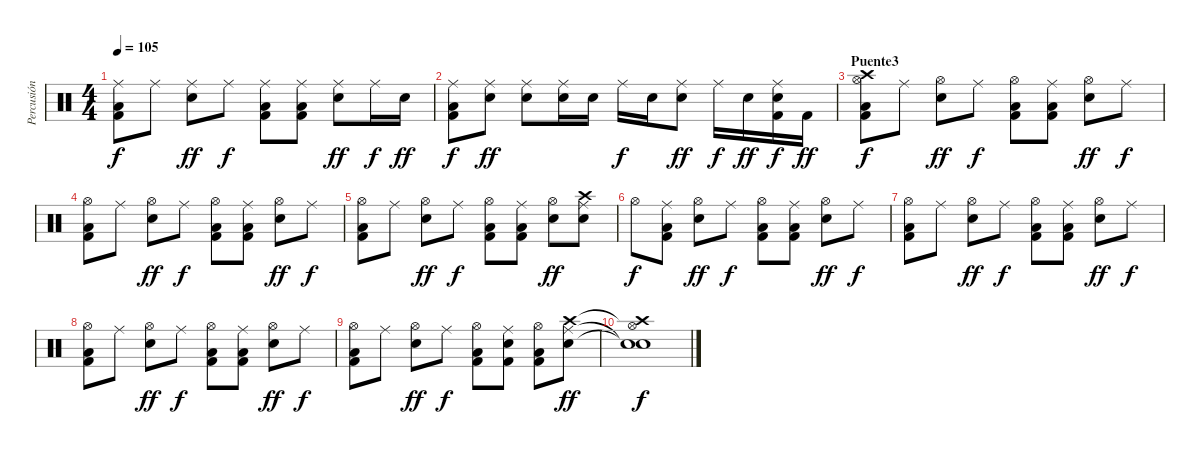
\track ("Percusión" "Percusión") {instrument percussion}
\staff {score}
\articulation defaults
\ts (4 4)
\tempo 105
\clef neutral
\ks c
("Low Floor Tom (hit)" "Kick (hit) 2" "Ride (middle)").8{dy f} "Ride (middle)".8 ("Electric Snare (hit)" "Ride (middle)").8{dy ff} "Ride (middle)".8{dy f} ("Low Floor Tom (hit)" "Kick (hit) 2" "Ride (middle)").8 ("Low Floor Tom (hit)" "Kick (hit) 2" "Ride (middle)").8 ("Electric Snare (hit)" "Ride (middle)").8{dy ff} "Ride (middle)".16{dy f} "Electric Snare (hit)".16{dy ff} |
("Low Floor Tom (hit)" "Kick (hit) 2" "Ride (middle)").8{dy f} ("Electric Snare (hit)" "Ride (middle)").8{dy ff} ("Electric Snare (hit)" "Ride (middle)").8 ("Electric Snare (hit)" "Ride (middle)").16 "Electric Snare (hit)".16 "Ride (middle)".16{dy f} "Electric Snare (hit)".16 ("Electric Snare (hit)" "Ride (middle)").8{dy ff} "Ride (middle)".16{dy f} "Electric Snare (hit)".16{dy ff} ("Electric Snare (hit)" "Kick (hit) 2" "Ride (middle)").16{dy f} "Kick (hit) 2".16{dy ff} |
\section ("" "Puente3")
("Low Floor Tom (hit)" "Kick (hit) 2" "Hi-Hat (open)" "Crash high (hit)").8{dy f} "Ride (middle)".8 ("Electric Snare (hit)" "Hi-Hat (open)").8{dy ff} "Ride (middle)".8{dy f} ("Low Floor Tom (hit)" "Kick (hit) 2" "Hi-Hat (open)").8 ("Low Floor Tom (hit)" "Kick (hit) 2" "Ride (middle)").8 ("Electric Snare (hit)" "Hi-Hat (open)").8{dy ff} "Ride (middle)".8{dy f} |
("Low Floor Tom (hit)" "Kick (hit) 2" "Hi-Hat (open)").8 "Ride (middle)".8 ("Electric Snare (hit)" "Hi-Hat (open)").8{dy ff} "Ride (middle)".8{dy f} ("Low Floor Tom (hit)" "Kick (hit) 2" "Hi-Hat (open)").8 ("Low Floor Tom (hit)" "Kick (hit) 2" "Ride (middle)").8 ("Electric Snare (hit)" "Hi-Hat (open)").8{dy ff} "Ride (middle)".8{dy f} |
("Low Floor Tom (hit)" "Kick (hit) 2" "Hi-Hat (open)").8 "Ride (middle)".8 ("Electric Snare (hit)" "Hi-Hat (open)").8{dy ff} "Ride (middle)".8{dy f} ("Low Floor Tom (hit)" "Kick (hit) 2" "Hi-Hat (open)").8 ("Low Floor Tom (hit)" "Kick (hit) 2" "Ride (middle)").8 ("Electric Snare (hit)" "Hi-Hat (open)").8{dy ff} ("Electric Snare (hit)" "Ride (middle)" "Crash high (hit)").8 |
"Hi-Hat (open)".8{dy f} ("Low Floor Tom (hit)" "Kick (hit) 2" "Ride (middle)").8 ("Electric Snare (hit)" "Hi-Hat (open)").8{dy ff} "Ride (middle)".8{dy f} ("Low Floor Tom (hit)" "Kick (hit) 2" "Hi-Hat (open)").8 ("Low Floor Tom (hit)" "Kick (hit) 2" "Ride (middle)").8 ("Electric Snare (hit)" "Hi-Hat (open)").8{dy ff} "Ride (middle)".8{dy f} |
("Low Floor Tom (hit)" "Kick (hit) 2" "Hi-Hat (open)").8 "Ride (middle)".8 ("Electric Snare (hit)" "Hi-Hat (open)").8{dy ff} "Ride (middle)".8{dy f} ("Low Floor Tom (hit)" "Kick (hit) 2" "Hi-Hat (open)").8 ("Low Floor Tom (hit)" "Kick (hit) 2" "Ride (middle)").8 ("Electric Snare (hit)" "Hi-Hat (open)").8{dy ff} "Ride (middle)".8{dy f} |
("Low Floor Tom (hit)" "Kick (hit) 2" "Hi-Hat (open)").8 "Ride (middle)".8 ("Electric Snare (hit)" "Hi-Hat (open)").8{dy ff} "Ride (middle)".8{dy f} ("Low Floor Tom (hit)" "Kick (hit) 2" "Hi-Hat (open)").8 ("Low Floor Tom (hit)" "Kick (hit) 2" "Ride (middle)").8 ("Electric Snare (hit)" "Hi-Hat (open)").8{dy ff} "Ride (middle)".8{dy f} |
("Low Floor Tom (hit)" "Kick (hit) 2" "Hi-Hat (open)").8 "Ride (middle)".8 ("Electric Snare (hit)" "Hi-Hat (open)").8{dy ff} "Ride (middle)".8{dy f} ("Low Floor Tom (hit)" "Kick (hit) 2" "Hi-Hat (open)").8 ("Electric Snare (hit)" "Kick (hit) 2" "Ride (middle)").8 ("Low Floor Tom (hit)" "Kick (hit) 2" "Hi-Hat (open)").8 ("Electric Snare (hit)" "Ride (middle)" "Crash high (hit)").8{dy ff} |
("Electric Snare (hit)"{t} "Snare (hit)"{t} "Hi-Hat (open)"{t} "Crash high (hit)").1{dy f}
